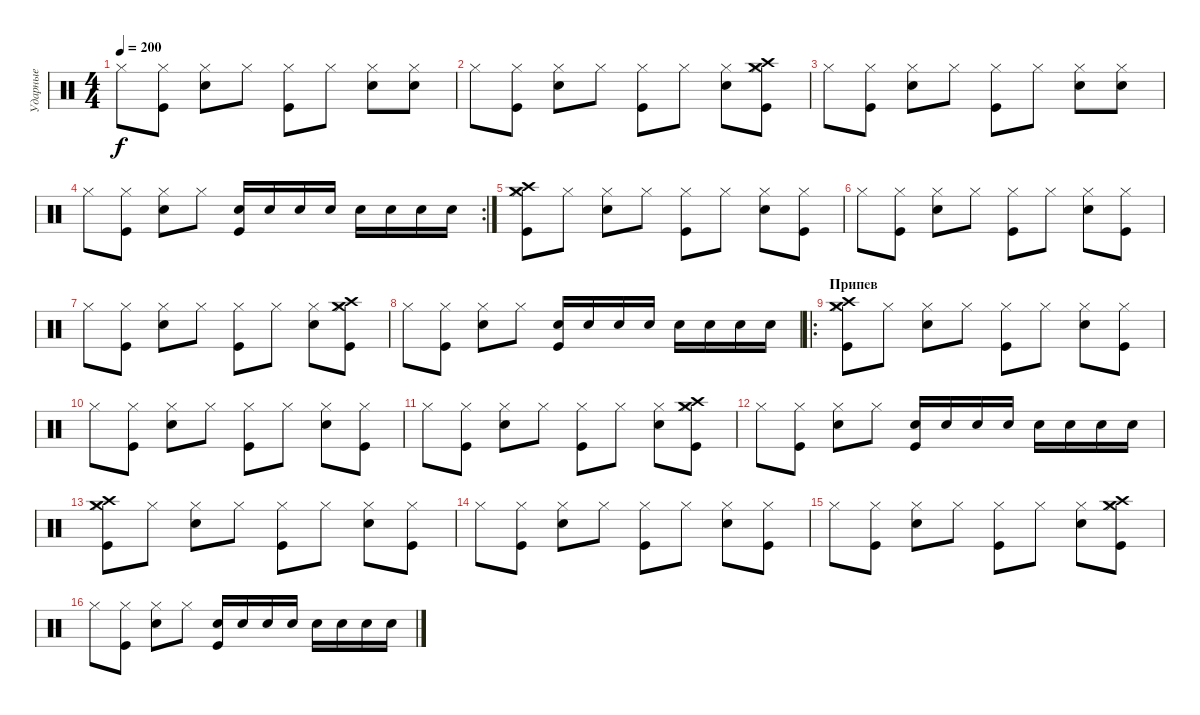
\track ("Ударные" "Ударные") {instrument percussion}
\staff {score}
\articulation defaults
\ts (4 4)
\tempo 200
\clef neutral
\ks c "Hi-Hat (closed)".8{dy f}
("Kick (hit)" "Hi-Hat (closed)").8 ("Electric Snare (hit)" "Hi-Hat (closed)").8 "Hi-Hat (closed)".8 ("Hi-Hat (closed)" "Kick (hit)").8 "Hi-Hat (closed)".8 ("Hi-Hat (closed)" "Electric Snare (hit)").8 ("Electric Snare (hit)" "Hi-Hat (closed)").8 |
"Hi-Hat (closed)".8 ("Kick (hit)" "Hi-Hat (closed)").8 ("Electric Snare (hit)" "Hi-Hat (closed)").8 "Hi-Hat (closed)".8 ("Hi-Hat (closed)" "Kick (hit)").8 "Hi-Hat (closed)".8 ("Hi-Hat (closed)" "Electric Snare (hit)").8 ("Crash medium (hit)" "Hi-Hat (closed)" "Kick (hit)" "Crash high (hit)").8 |
"Hi-Hat (closed)".8 ("Kick (hit)" "Hi-Hat (closed)").8 ("Electric Snare (hit)" "Hi-Hat (closed)").8 "Hi-Hat (closed)".8 ("Hi-Hat (closed)" "Kick (hit)").8 "Hi-Hat (closed)".8 ("Hi-Hat (closed)" "Electric Snare (hit)").8 ("Electric Snare (hit)" "Hi-Hat (closed)").8 |
\rc 2 "Hi-Hat (closed)".8
("Kick (hit)" "Hi-Hat (closed)").8 ("Electric Snare (hit)" "Hi-Hat (closed)").8 "Hi-Hat (closed)".8 ("Electric Snare (hit)" "Kick (hit)").16 "Electric Snare (hit)".16 "Electric Snare (hit)".16 "Electric Snare (hit)".16 "Electric Snare (hit)".16 "Electric Snare (hit)".16 "Electric Snare (hit)".16 "Electric Snare (hit)".16 |
("Crash high (hit)" "Crash medium (hit)" "Hi-Hat (closed)" "Kick (hit)").8 "Hi-Hat (closed)".8 ("Electric Snare (hit)" "Hi-Hat (closed)").8 "Hi-Hat (closed)".8 ("Hi-Hat (closed)" "Kick (hit)").8 "Hi-Hat (closed)".8 ("Hi-Hat (closed)" "Electric Snare (hit)").8 ("Kick (hit)" "Hi-Hat (closed)").8 |
"Hi-Hat (closed)".8 ("Kick (hit)" "Hi-Hat (closed)").8 ("Electric Snare (hit)" "Hi-Hat (closed)").8 "Hi-Hat (closed)".8 ("Hi-Hat (closed)" "Kick (hit)").8 "Hi-Hat (closed)".8 ("Hi-Hat (closed)" "Electric Snare (hit)").8 ("Kick (hit)" "Hi-Hat (closed)").8 |
"Hi-Hat (closed)".8 ("Kick (hit)" "Hi-Hat (closed)").8 ("Electric Snare (hit)" "Hi-Hat (closed)").8 "Hi-Hat (closed)".8 ("Hi-Hat (closed)" "Kick (hit)").8 "Hi-Hat (closed)".8 ("Hi-Hat (closed)" "Electric Snare (hit)").8 ("Crash medium (hit)" "Hi-Hat (closed)" "Kick (hit)" "Crash high (hit)").8 |
"Hi-Hat (closed)".8 ("Kick (hit)" "Hi-Hat (closed)").8 ("Electric Snare (hit)" "Hi-Hat (closed)").8 "Hi-Hat (closed)".8 ("Electric Snare (hit)" "Kick (hit)").16 "Electric Snare (hit)".16 "Electric Snare (hit)".16 "Electric Snare (hit)".16 "Electric Snare (hit)".16 "Electric Snare (hit)".16 "Electric Snare (hit)".16 "Electric Snare (hit)".16 |
\ro
\section ("" "Припев")
("Crash high (hit)" "Crash medium (hit)" "Hi-Hat (closed)" "Kick (hit)").8 "Hi-Hat (closed)".8 ("Electric Snare (hit)" "Hi-Hat (closed)").8 "Hi-Hat (closed)".8 ("Hi-Hat (closed)" "Kick (hit)").8 "Hi-Hat (closed)".8 ("Hi-Hat (closed)" "Electric Snare (hit)").8 ("Kick (hit)" "Hi-Hat (closed)").8 |
"Hi-Hat (closed)".8 ("Kick (hit)" "Hi-Hat (closed)").8 ("Electric Snare (hit)" "Hi-Hat (closed)").8 "Hi-Hat (closed)".8 ("Hi-Hat (closed)" "Kick (hit)").8 "Hi-Hat (closed)".8 ("Hi-Hat (closed)" "Electric Snare (hit)").8 ("Kick (hit)" "Hi-Hat (closed)").8 |
"Hi-Hat (closed)".8 ("Kick (hit)" "Hi-Hat (closed)").8 ("Electric Snare (hit)" "Hi-Hat (closed)").8 "Hi-Hat (closed)".8 ("Hi-Hat (closed)" "Kick (hit)").8 "Hi-Hat (closed)".8 ("Hi-Hat (closed)" "Electric Snare (hit)").8 ("Crash medium (hit)" "Hi-Hat (closed)" "Kick (hit)" "Crash high (hit)").8 |
"Hi-Hat (closed)".8 ("Kick (hit)" "Hi-Hat (closed)").8 ("Electric Snare (hit)" "Hi-Hat (closed)").8 "Hi-Hat (closed)".8 ("Electric Snare (hit)" "Kick (hit)").16 "Electric Snare (hit)".16 "Electric Snare (hit)".16 "Electric Snare (hit)".16 "Electric Snare (hit)".16 "Electric Snare (hit)".16 "Electric Snare (hit)".16 "Electric Snare (hit)".16 |
("Crash high (hit)" "Crash medium (hit)" "Hi-Hat (closed)" "Kick (hit)").8 "Hi-Hat (closed)".8 ("Electric Snare (hit)" "Hi-Hat (closed)").8 "Hi-Hat (closed)".8 ("Hi-Hat (closed)" "Kick (hit)").8 "Hi-Hat (closed)".8 ("Hi-Hat (closed)" "Electric Snare (hit)").8 ("Kick (hit)" "Hi-Hat (closed)").8 |
"Hi-Hat (closed)".8 ("Kick (hit)" "Hi-Hat (closed)").8 ("Electric Snare (hit)" "Hi-Hat (closed)").8 "Hi-Hat (closed)".8 ("Hi-Hat (closed)" "Kick (hit)").8 "Hi-Hat (closed)".8 ("Hi-Hat (closed)" "Electric Snare (hit)").8 ("Kick (hit)" "Hi-Hat (closed)").8 |
"Hi-Hat (closed)".8 ("Kick (hit)" "Hi-Hat (closed)").8 ("Electric Snare (hit)" "Hi-Hat (closed)").8 "Hi-Hat (closed)".8 ("Hi-Hat (closed)" "Kick (hit)").8 "Hi-Hat (closed)".8 ("Hi-Hat (closed)" "Electric Snare (hit)").8 ("Crash medium (hit)" "Hi-Hat (closed)" "Kick (hit)" "Crash high (hit)").8 |
"Hi-Hat (closed)".8 ("Kick (hit)" "Hi-Hat (closed)").8 ("Electric Snare (hit)" "Hi-Hat (closed)").8 "Hi-Hat (closed)".8 ("Electric Snare (hit)" "Kick (hit)").16 "Electric Snare (hit)".16 "Electric Snare (hit)".16 "Electric Snare (hit)".16 "Electric Snare (hit)".16 "Electric Snare (hit)".16 "Electric Snare (hit)".16 "Electric Snare (hit)".16
